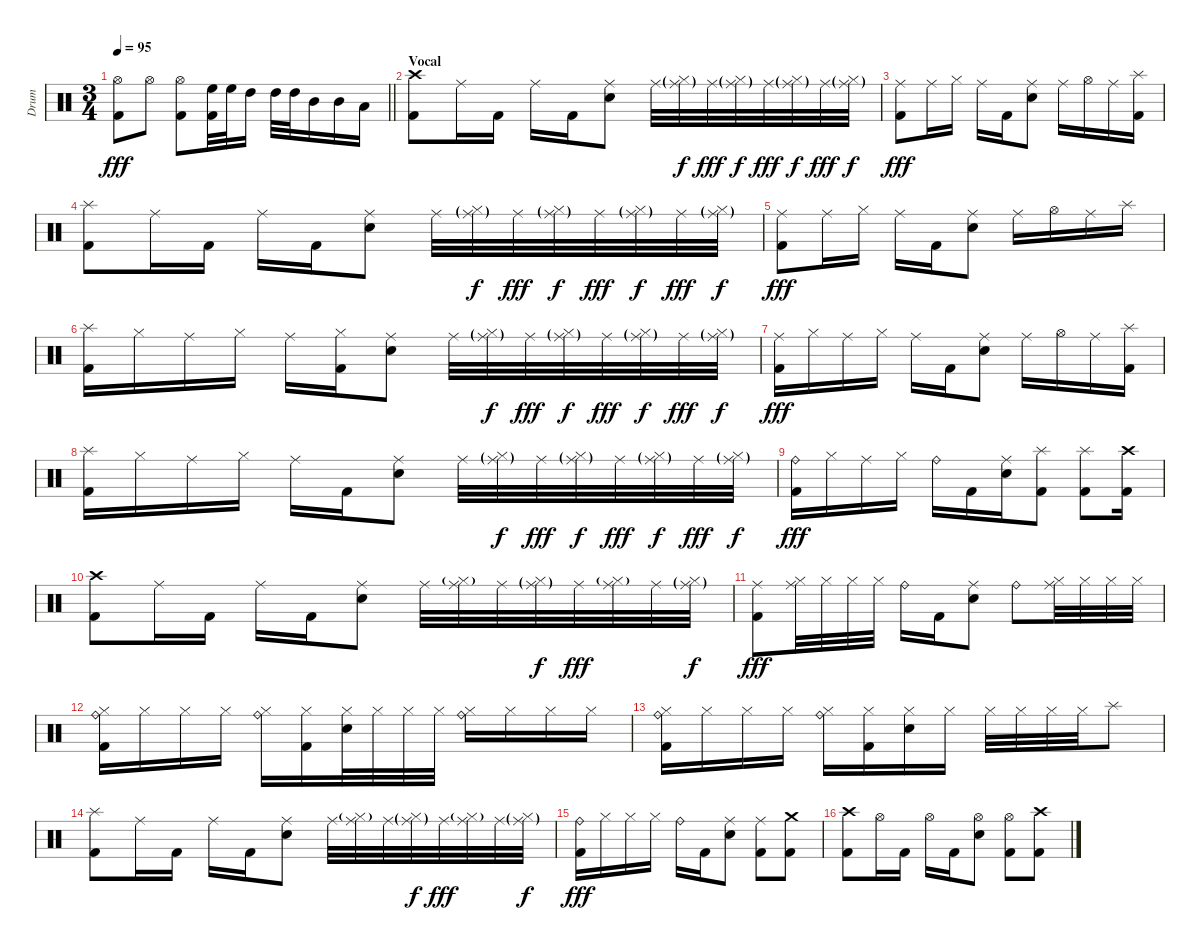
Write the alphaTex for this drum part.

\track ("Drum" "Drum") {instrument percussion}
\staff {score}
\articulation defaults
\ts (3 4)
\tempo 95
\clef neutral
\barLineRight lightlight
\ks c
("Hi-Hat (open)" "Kick (hit) 2").8{dy fff} "Hi-Hat (open)".8 ("Hi-Hat (open)" "Kick (hit) 2").8 ("High Floor Tom (hit)" "Kick (hit) 2").32 "High Floor Tom (hit)".32 "High Tom (hit)".16 "High Tom (hit)".32 "High Tom (hit)".32 "Mid Tom (hit)".16 "Mid Tom (hit)".16 "Low Tom (hit)".16 |
\section ("" "Vocal")
("Crash high (hit)" "Kick (hit) 2").8 "Ride (middle)".16 "Kick (hit) 2".16 "Ride (middle)".16 "Kick (hit) 2".16 ("Ride (middle)" "Electric Snare (hit)").8 "Ride (middle)".32 ("Ride (middle)"{g} "Hi-Hat (closed)"{g}).32{dy f} "Ride (middle)".32{dy fff} ("Ride (middle)"{g} "Hi-Hat (closed)"{g}).32{dy f} "Ride (middle)".32{dy fff} ("Ride (middle)"{g} "Hi-Hat (closed)"{g}).32{dy f} "Ride (middle)".32{dy fff} ("Ride (middle)"{g} "Hi-Hat (closed)"{g}).32{dy f} |
("Ride (middle)" "Kick (hit) 2").8{dy fff} "Ride (middle)".16 "Hi-Hat (closed)".16 "Ride (middle)".16 "Kick (hit) 2".16 ("Ride (middle)" "Electric Snare (hit)").8 "Ride (middle)".16 "Hi-Hat (open)".16 "Ride (middle)".16 ("Splash (hit)" "Kick (hit) 2").16 |
("Splash (hit)" "Kick (hit) 2").8 "Ride (middle)".16 "Kick (hit) 2".16 "Ride (middle)".16 "Kick (hit) 2".16 ("Ride (middle)" "Electric Snare (hit)").8 "Ride (middle)".32 ("Ride (middle)"{g} "Hi-Hat (closed)"{g}).32{dy f} "Ride (middle)".32{dy fff} ("Ride (middle)"{g} "Hi-Hat (closed)"{g}).32{dy f} "Ride (middle)".32{dy fff} ("Ride (middle)"{g} "Hi-Hat (closed)"{g}).32{dy f} "Ride (middle)".32{dy fff} ("Ride (middle)"{g} "Hi-Hat (closed)"{g}).32{dy f} |
("Ride (middle)" "Kick (hit) 2").8{dy fff} "Ride (middle)".16 "Hi-Hat (closed)".16 "Ride (middle)".16 "Kick (hit) 2".16 ("Ride (middle)" "Electric Snare (hit)").8 "Ride (middle)".16 "Hi-Hat (open)".16 "Ride (middle)".16 "Splash (hit)".16 |
("Splash (hit)" "Kick (hit) 2").16 "Hi-Hat (closed)".16 "Ride (middle)".16 "Hi-Hat (closed)".16 "Ride (middle)".16 ("Hi-Hat (closed)" "Kick (hit) 2").16 ("Ride (middle)" "Electric Snare (hit)").8 "Ride (middle)".32 ("Ride (middle)"{g} "Hi-Hat (closed)"{g}).32{dy f} "Ride (middle)".32{dy fff} ("Ride (middle)"{g} "Hi-Hat (closed)"{g}).32{dy f} "Ride (middle)".32{dy fff} ("Ride (middle)"{g} "Hi-Hat (closed)"{g}).32{dy f} "Ride (middle)".32{dy fff} ("Ride (middle)"{g} "Hi-Hat (closed)"{g}).32{dy f} |
("Ride (middle)" "Kick (hit) 2").16{dy fff} "Hi-Hat (closed)".16 "Ride (middle)".16 "Hi-Hat (closed)".16 "Ride (middle)".16 "Kick (hit) 2".16 ("Ride (middle)" "Electric Snare (hit)").8 "Ride (middle)".16 "Hi-Hat (open)".16 "Ride (middle)".16 ("Splash (hit)" "Kick (hit) 2").16 |
("Splash (hit)" "Kick (hit) 2").16 "Hi-Hat (closed)".16 "Ride (middle)".16 "Hi-Hat (closed)".16 "Ride (middle)".16 "Kick (hit) 2".16 ("Ride (middle)" "Electric Snare (hit)").8 "Ride (middle)".32 ("Ride (middle)"{g} "Hi-Hat (closed)"{g}).32{dy f} "Ride (middle)".32{dy fff} ("Ride (middle)"{g} "Hi-Hat (closed)"{g}).32{dy f} "Ride (middle)".32{dy fff} ("Ride (middle)"{g} "Hi-Hat (closed)"{g}).32{dy f} "Ride (middle)".32{dy fff} ("Ride (middle)"{g} "Hi-Hat (closed)"{g}).32{dy f} |
("Ride (bell)" "Kick (hit) 2").16{dy fff} "Hi-Hat (closed)".16 "Ride (middle)".16 "Hi-Hat (closed)".16 "Ride (bell)".16 "Kick (hit) 2".16 ("Ride (middle)" "Electric Snare (hit)").16 ("Splash (hit)" "Kick (hit) 2").8 ("Splash (hit)" "Kick (hit) 2").8 ("Crash high (hit)" "Kick (hit) 2").16 |
("Crash high (hit)" "Kick (hit) 2").8 "Ride (middle)".16 "Kick (hit) 2".16 "Ride (middle)".16 "Kick (hit) 2".16 ("Ride (middle)" "Electric Snare (hit)").8 "Ride (middle)".32 ("Ride (middle)" "Hi-Hat (closed)"{g}).32 "Ride (middle)".32 ("Ride (middle)"{g} "Hi-Hat (closed)"{g}).32{dy f} "Ride (middle)".32{dy fff} ("Ride (middle)" "Hi-Hat (closed)"{g}).32 "Ride (middle)".32 ("Ride (middle)"{g} "Hi-Hat (closed)"{g}).32{dy f} |
("Ride (middle)" "Kick (hit) 2").8{dy fff} ("Ride (middle)" "Hi-Hat (closed)").32 "Hi-Hat (closed)".32 "Hi-Hat (closed)".32 "Hi-Hat (closed)".32 "Ride (bell)".16 "Kick (hit) 2".16 ("Ride (middle)" "Electric Snare (hit)").8 "Ride (bell)".8 ("Ride (middle)" "Hi-Hat (closed)").32 "Hi-Hat (closed)".32 "Hi-Hat (closed)".32 "Hi-Hat (closed)".32 |
("Ride (bell)" "Hi-Hat (closed)" "Kick (hit) 2").16 "Hi-Hat (closed)".16 "Hi-Hat (closed)".16 "Hi-Hat (closed)".16 ("Ride (bell)" "Hi-Hat (closed)").16 ("Hi-Hat (closed)" "Kick (hit) 2").16 ("Hi-Hat (closed)" "Electric Snare (hit)").32 "Hi-Hat (closed)".32 "Hi-Hat (closed)".32 "Hi-Hat (closed)".32 ("Ride (bell)" "Hi-Hat (closed)").16 "Hi-Hat (closed)".16 "Hi-Hat (closed)".16 "Hi-Hat (closed)".16 |
("Ride (bell)" "Hi-Hat (closed)" "Kick (hit) 2").16 "Hi-Hat (closed)".16 "Hi-Hat (closed)".16 "Hi-Hat (closed)".16 ("Ride (bell)" "Hi-Hat (closed)").16 ("Hi-Hat (closed)" "Kick (hit) 2").16 ("Hi-Hat (closed)" "Electric Snare (hit)").16 "Hi-Hat (closed)".16 "Hi-Hat (closed)".32 "Hi-Hat (closed)".32 "Hi-Hat (closed)".32 "Hi-Hat (closed)".32 "Splash (hit)".8 |
("Splash (hit)" "Kick (hit) 2").8 "Ride (middle)".16 "Kick (hit) 2".16 "Ride (middle)".16 "Kick (hit) 2".16 ("Ride (middle)" "Electric Snare (hit)").8 "Ride (middle)".32 ("Ride (middle)" "Hi-Hat (closed)"{g}).32 "Ride (middle)".32 ("Ride (middle)"{g} "Hi-Hat (closed)"{g}).32{dy f} "Ride (middle)".32{dy fff} ("Ride (middle)" "Hi-Hat (closed)"{g}).32 "Ride (middle)".32 ("Ride (middle)"{g} "Hi-Hat (closed)"{g}).32{dy f} |
("Ride (bell)" "Kick (hit) 2").16{dy fff} "Hi-Hat (closed)".16 "Hi-Hat (closed)".16 "Hi-Hat (closed)".16 "Ride (bell)".16 "Kick (hit) 2".16 ("Ride (middle)" "Electric Snare (hit)").8 ("Ride (middle)" "Kick (hit) 2").8 ("Crash medium (hit)" "Kick (hit) 2").8 |
("Crash high (hit)" "Kick (hit) 2").8 "Hi-Hat (open)".16 "Kick (hit) 2".16 "Hi-Hat (open)".16 "Kick (hit) 2".16 ("Hi-Hat (open)" "Electric Snare (hit)").8 ("Hi-Hat (open)" "Kick (hit) 2").8 ("Crash high (hit)" "Kick (hit) 2").8
